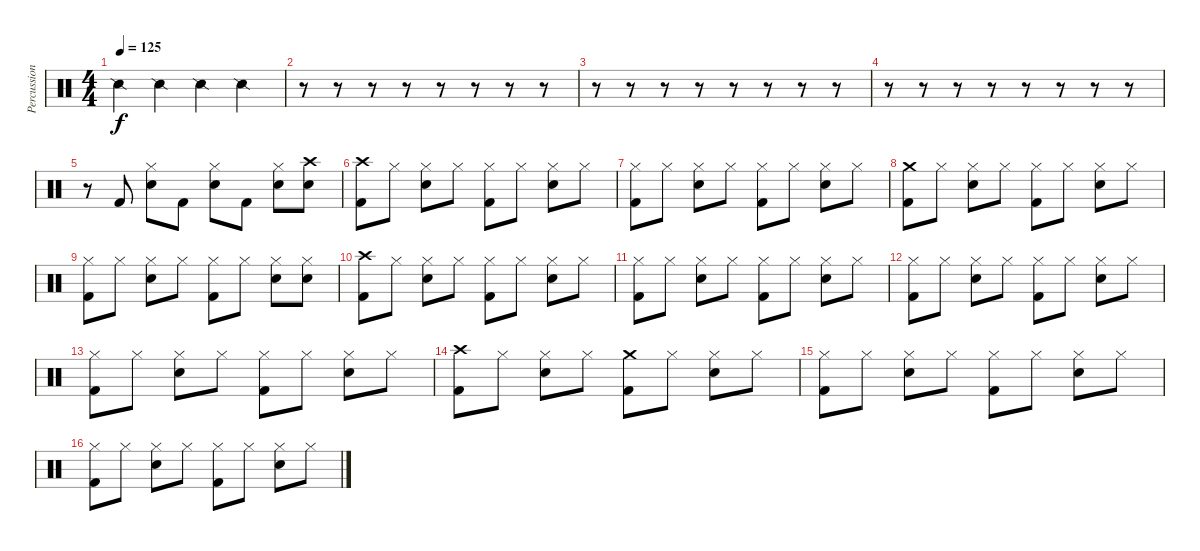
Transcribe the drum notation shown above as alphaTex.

\track ("Percussions" "Percussion") {instrument percussion}
\staff {score}
\articulation defaults
\ts (4 4)
\tempo 125
\clef neutral
\ks c "Snare (side stick) 2".4{dy f} "Snare (side stick) 2".4 "Snare (side stick) 2".4 "Snare (side stick) 2".4
|
r.8 r.8 r.8 r.8 r.8 r.8 r.8 r.8 |
r.8 r.8 r.8 r.8 r.8 r.8 r.8 r.8 |
r.8 r.8 r.8 r.8 r.8 r.8 r.8 r.8 |
r.8 "Kick (hit) 2".8 ("Hi-Hat (closed)" "Snare (hit) 2").8 "Kick (hit) 2".8 ("Hi-Hat (closed)" "Snare (hit) 2").8 "Kick (hit) 2".8 ("Hi-Hat (closed)" "Snare (hit) 2").8 ("Crash high (hit)" "Snare (hit) 2").8 |
("Crash high (hit)" "Kick (hit) 2").8 "Hi-Hat (closed)".8 ("Hi-Hat (closed)" "Snare (hit) 2").8 "Hi-Hat (closed)".8 ("Hi-Hat (closed)" "Kick (hit) 2").8 "Hi-Hat (closed)".8 ("Hi-Hat (closed)" "Snare (hit) 2").8 "Hi-Hat (closed)".8 |
("Hi-Hat (closed)" "Kick (hit) 2").8 "Hi-Hat (closed)".8 ("Hi-Hat (closed)" "Snare (hit) 2").8 "Hi-Hat (closed)".8 ("Hi-Hat (closed)" "Kick (hit) 2").8 "Hi-Hat (closed)".8 ("Hi-Hat (closed)" "Snare (hit) 2").8 "Hi-Hat (closed)".8 |
("Crash medium (hit)" "Kick (hit) 2").8 "Hi-Hat (closed)".8 ("Hi-Hat (closed)" "Snare (hit) 2").8 "Hi-Hat (closed)".8 ("Hi-Hat (closed)" "Kick (hit) 2").8 "Hi-Hat (closed)".8 ("Hi-Hat (closed)" "Snare (hit) 2").8 "Hi-Hat (closed)".8 |
("Hi-Hat (closed)" "Kick (hit) 2").8 "Hi-Hat (closed)".8 ("Hi-Hat (closed)" "Snare (hit) 2").8 "Hi-Hat (closed)".8 ("Hi-Hat (closed)" "Kick (hit) 2").8 "Hi-Hat (closed)".8 ("Hi-Hat (closed)" "Snare (hit) 2").8 ("Hi-Hat (closed)" "Snare (hit) 2").8 |
("Crash high (hit)" "Kick (hit) 2").8 "Hi-Hat (closed)".8 ("Hi-Hat (closed)" "Snare (hit) 2").8 "Hi-Hat (closed)".8 ("Hi-Hat (closed)" "Kick (hit) 2").8 "Hi-Hat (closed)".8 ("Hi-Hat (closed)" "Snare (hit) 2").8 "Hi-Hat (closed)".8 |
("Hi-Hat (closed)" "Kick (hit) 2").8 "Hi-Hat (closed)".8 ("Hi-Hat (closed)" "Snare (hit) 2").8 "Hi-Hat (closed)".8 ("Hi-Hat (closed)" "Kick (hit) 2").8 "Hi-Hat (closed)".8 ("Hi-Hat (closed)" "Snare (hit) 2").8 "Hi-Hat (closed)".8 |
("Hi-Hat (closed)" "Kick (hit) 2").8 "Hi-Hat (closed)".8 ("Hi-Hat (closed)" "Snare (hit) 2").8 "Hi-Hat (closed)".8 ("Hi-Hat (closed)" "Kick (hit) 2").8 "Hi-Hat (closed)".8 ("Hi-Hat (closed)" "Snare (hit) 2").8 "Hi-Hat (closed)".8 |
("Hi-Hat (closed)" "Kick (hit) 2").8 "Hi-Hat (closed)".8 ("Hi-Hat (closed)" "Snare (hit) 2").8 "Hi-Hat (closed)".8 ("Hi-Hat (closed)" "Kick (hit) 2").8 "Hi-Hat (closed)".8 ("Hi-Hat (closed)" "Snare (hit) 2").8 "Hi-Hat (closed)".8 |
("Crash high (hit)" "Kick (hit) 2").8 "Hi-Hat (closed)".8 ("Hi-Hat (closed)" "Snare (hit) 2").8 "Hi-Hat (closed)".8 ("Crash medium (hit)" "Kick (hit) 2").8 "Hi-Hat (closed)".8 ("Hi-Hat (closed)" "Snare (hit) 2").8 "Hi-Hat (closed)".8 |
("Hi-Hat (closed)" "Kick (hit) 2").8 "Hi-Hat (closed)".8 ("Hi-Hat (closed)" "Snare (hit) 2").8 "Hi-Hat (closed)".8 ("Hi-Hat (closed)" "Kick (hit) 2").8 "Hi-Hat (closed)".8 ("Hi-Hat (closed)" "Snare (hit) 2").8 "Hi-Hat (closed)".8 |
("Hi-Hat (closed)" "Kick (hit) 2").8 "Hi-Hat (closed)".8 ("Hi-Hat (closed)" "Snare (hit) 2").8 "Hi-Hat (closed)".8 ("Hi-Hat (closed)" "Kick (hit) 2").8 "Hi-Hat (closed)".8 ("Hi-Hat (closed)" "Snare (hit) 2").8 "Hi-Hat (closed)".8
